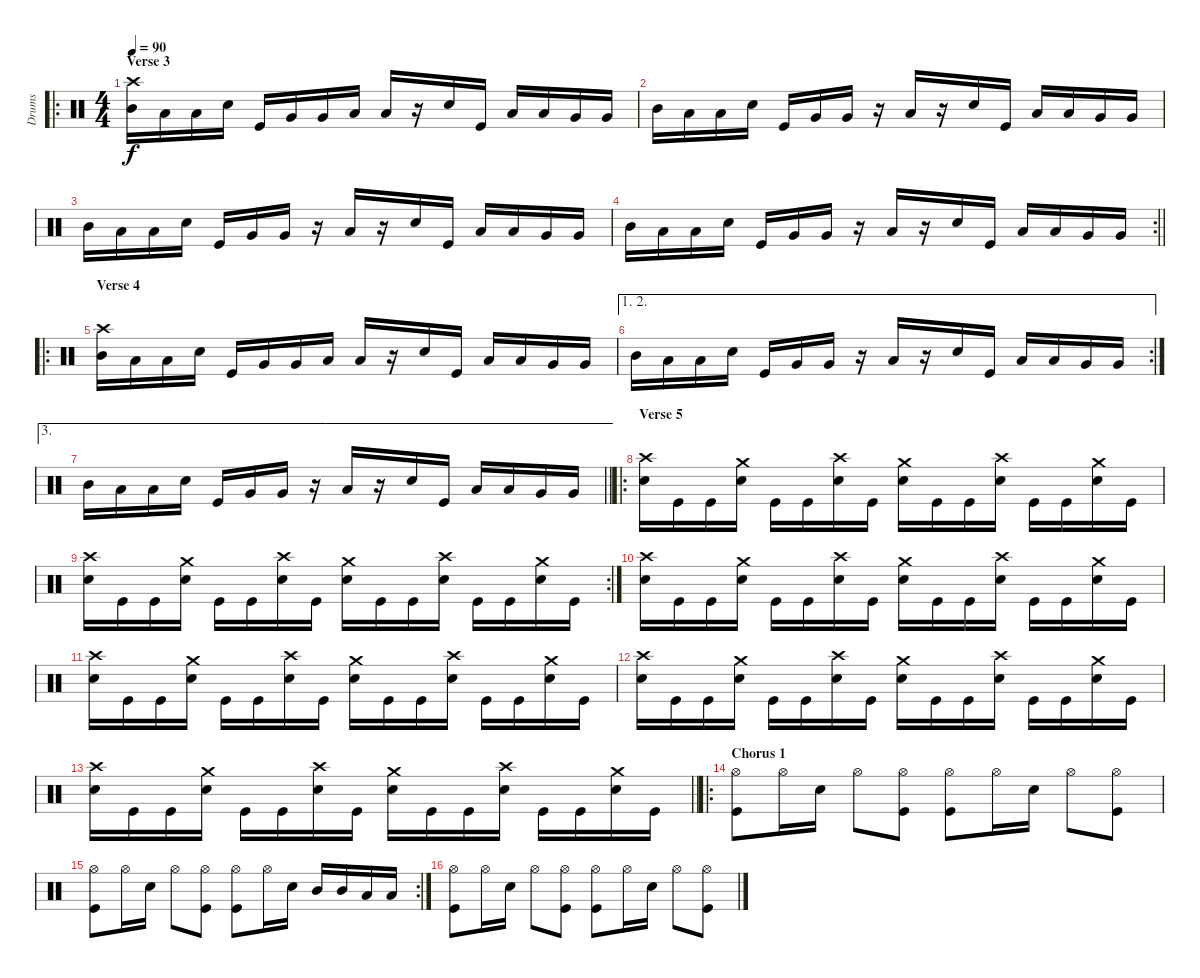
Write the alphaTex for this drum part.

\track ("Drums" "Drums") {instrument percussion}
\staff {score}
\articulation defaults
\ro
\ts (4 4)
\section ("" "Verse 3")
\tempo 90
\clef neutral
\ks c
("Crash high (hit)" "Mid Tom (hit)").16{dy f} "Low Tom (hit)".16 "Low Tom (hit)".16 "Snare (hit) 2".16 "Kick (hit)".16 "Very Low Tom (hit)".16 "Very Low Tom (hit)".16 "Low Floor Tom (hit)".16 "Low Floor Tom (hit)".16 r.16 "Snare (hit) 2".16 "Kick (hit)".16 "Low Tom (hit)".16 "Low Tom (hit)".16 "Very Low Tom (hit)".16 "Very Low Tom (hit)".16 |
"Mid Tom (hit)".16 "Low Tom (hit)".16 "Low Tom (hit)".16 "Snare (hit) 2".16 "Kick (hit)".16 "Very Low Tom (hit)".16 "Very Low Tom (hit)".16 r.16 "Low Floor Tom (hit)".16 r.16 "Snare (hit) 2".16 "Kick (hit)".16 "Low Tom (hit)".16 "Low Tom (hit)".16 "Very Low Tom (hit)".16 "Very Low Tom (hit)".16 |
"Mid Tom (hit)".16 "Low Tom (hit)".16 "Low Tom (hit)".16 "Snare (hit) 2".16 "Kick (hit)".16 "Very Low Tom (hit)".16 "Very Low Tom (hit)".16 r.16 "Low Floor Tom (hit)".16 r.16 "Snare (hit) 2".16 "Kick (hit)".16 "Low Tom (hit)".16 "Low Tom (hit)".16 "Very Low Tom (hit)".16 "Very Low Tom (hit)".16 |
\rc 2
\barLineRight lightlight "Mid Tom (hit)".16 "Low Tom (hit)".16 "Low Tom (hit)".16 "Snare (hit) 2".16 "Kick (hit)".16 "Very Low Tom (hit)".16 "Very Low Tom (hit)".16
r.16 "Low Floor Tom (hit)".16 r.16 "Snare (hit) 2".16 "Kick (hit)".16 "Low Tom (hit)".16 "Low Tom (hit)".16 "Very Low Tom (hit)".16 "Very Low Tom (hit)".16 |
\ro
\section ("" "Verse 4")
("Crash high (hit)" "Mid Tom (hit)").16 "Low Tom (hit)".16 "Low Tom (hit)".16 "Snare (hit) 2".16 "Kick (hit)".16 "Very Low Tom (hit)".16 "Very Low Tom (hit)".16 "Low Floor Tom (hit)".16 "Low Floor Tom (hit)".16 r.16 "Snare (hit) 2".16 "Kick (hit)".16 "Low Tom (hit)".16 "Low Tom (hit)".16 "Very Low Tom (hit)".16 "Very Low Tom (hit)".16 |
\ae (1 2)
\rc 2 "Mid Tom (hit)".16 "Low Tom (hit)".16 "Low Tom (hit)".16 "Snare (hit) 2".16 "Kick (hit)".16 "Very Low Tom (hit)".16 "Very Low Tom (hit)".16
r.16 "Low Floor Tom (hit)".16 r.16 "Snare (hit) 2".16 "Kick (hit)".16 "Low Tom (hit)".16 "Low Tom (hit)".16 "Very Low Tom (hit)".16 "Very Low Tom (hit)".16 |
\ae 3
\barLineRight lightlight "Mid Tom (hit)".16 "Low Tom (hit)".16 "Low Tom (hit)".16 "Snare (hit) 2".16 "Kick (hit)".16 "Very Low Tom (hit)".16 "Very Low Tom (hit)".16
r.16 "Low Floor Tom (hit)".16 r.16 "Snare (hit) 2".16 "Kick (hit)".16 "Low Tom (hit)".16 "Low Tom (hit)".16 "Very Low Tom (hit)".16 "Very Low Tom (hit)".16 |
\ro
\section ("" "Verse 5")
("Crash high (hit)" "Snare (hit) 2").16 "Kick (hit)".16 "Kick (hit)".16 ("Crash medium (hit)" "Snare (hit) 2").16 "Kick (hit)".16 "Kick (hit)".16 ("Crash high (hit)" "Snare (hit) 2").16 "Kick (hit)".16 ("Crash medium (hit)" "Snare (hit) 2").16 "Kick (hit)".16 "Kick (hit)".16 ("Crash high (hit)" "Snare (hit) 2").16 "Kick (hit)".16 "Kick (hit)".16 ("Crash medium (hit)" "Snare (hit) 2").16 "Kick (hit)".16 |
\rc 2
("Crash high (hit)" "Snare (hit) 2").16 "Kick (hit)".16 "Kick (hit)".16 ("Crash medium (hit)" "Snare (hit) 2").16 "Kick (hit)".16 "Kick (hit)".16 ("Crash high (hit)" "Snare (hit) 2").16 "Kick (hit)".16 ("Crash medium (hit)" "Snare (hit) 2").16 "Kick (hit)".16 "Kick (hit)".16 ("Crash high (hit)" "Snare (hit) 2").16 "Kick (hit)".16 "Kick (hit)".16 ("Crash medium (hit)" "Snare (hit) 2").16 "Kick (hit)".16 |
("Crash high (hit)" "Snare (hit) 2").16 "Kick (hit)".16 "Kick (hit)".16 ("Crash medium (hit)" "Snare (hit) 2").16 "Kick (hit)".16 "Kick (hit)".16 ("Crash high (hit)" "Snare (hit) 2").16 "Kick (hit)".16 ("Crash medium (hit)" "Snare (hit) 2").16 "Kick (hit)".16 "Kick (hit)".16 ("Crash high (hit)" "Snare (hit) 2").16 "Kick (hit)".16 "Kick (hit)".16 ("Crash medium (hit)" "Snare (hit) 2").16 "Kick (hit)".16 |
("Crash high (hit)" "Snare (hit) 2").16 "Kick (hit)".16 "Kick (hit)".16 ("Crash medium (hit)" "Snare (hit) 2").16 "Kick (hit)".16 "Kick (hit)".16 ("Crash high (hit)" "Snare (hit) 2").16 "Kick (hit)".16 ("Crash medium (hit)" "Snare (hit) 2").16 "Kick (hit)".16 "Kick (hit)".16 ("Crash high (hit)" "Snare (hit) 2").16 "Kick (hit)".16 "Kick (hit)".16 ("Crash medium (hit)" "Snare (hit) 2").16 "Kick (hit)".16 |
("Crash high (hit)" "Snare (hit) 2").16 "Kick (hit)".16 "Kick (hit)".16 ("Crash medium (hit)" "Snare (hit) 2").16 "Kick (hit)".16 "Kick (hit)".16 ("Crash high (hit)" "Snare (hit) 2").16 "Kick (hit)".16 ("Crash medium (hit)" "Snare (hit) 2").16 "Kick (hit)".16 "Kick (hit)".16 ("Crash high (hit)" "Snare (hit) 2").16 "Kick (hit)".16 "Kick (hit)".16 ("Crash medium (hit)" "Snare (hit) 2").16 "Kick (hit)".16 |
\barLineRight lightlight
("Crash high (hit)" "Snare (hit) 2").16 "Kick (hit)".16 "Kick (hit)".16 ("Crash medium (hit)" "Snare (hit) 2").16 "Kick (hit)".16 "Kick (hit)".16 ("Crash high (hit)" "Snare (hit) 2").16 "Kick (hit)".16 ("Crash medium (hit)" "Snare (hit) 2").16 "Kick (hit)".16 "Kick (hit)".16 ("Crash high (hit)" "Snare (hit) 2").16 "Kick (hit)".16 "Kick (hit)".16 ("Crash medium (hit)" "Snare (hit) 2").16 "Kick (hit)".16 |
\ro
\section ("" "Chorus 1")
("Hi-Hat (open)" "Kick (hit)").8 "Hi-Hat (open)".16 "Snare (hit) 2".16 "Hi-Hat (open)".8 ("Hi-Hat (open)" "Kick (hit)").8 ("Hi-Hat (open)" "Kick (hit)").8 "Hi-Hat (open)".16 "Snare (hit) 2".16 "Hi-Hat (open)".8 ("Hi-Hat (open)" "Kick (hit)").8 |
\rc 2
("Hi-Hat (open)" "Kick (hit)").8 "Hi-Hat (open)".16 "Snare (hit) 2".16 "Hi-Hat (open)".8 ("Hi-Hat (open)" "Kick (hit)").8 ("Hi-Hat (open)" "Kick (hit)").8 "Hi-Hat (open)".16 "Snare (hit) 2".16 "Mid Tom (hit)".16 "Mid Tom (hit)".16 "Low Tom (hit)".16 "Low Tom (hit)".16 |
("Hi-Hat (open)" "Kick (hit)").8 "Hi-Hat (open)".16 "Snare (hit) 2".16 "Hi-Hat (open)".8 ("Hi-Hat (open)" "Kick (hit)").8 ("Hi-Hat (open)" "Kick (hit)").8 "Hi-Hat (open)".16 "Snare (hit) 2".16 "Hi-Hat (open)".8 ("Hi-Hat (open)" "Kick (hit)").8
